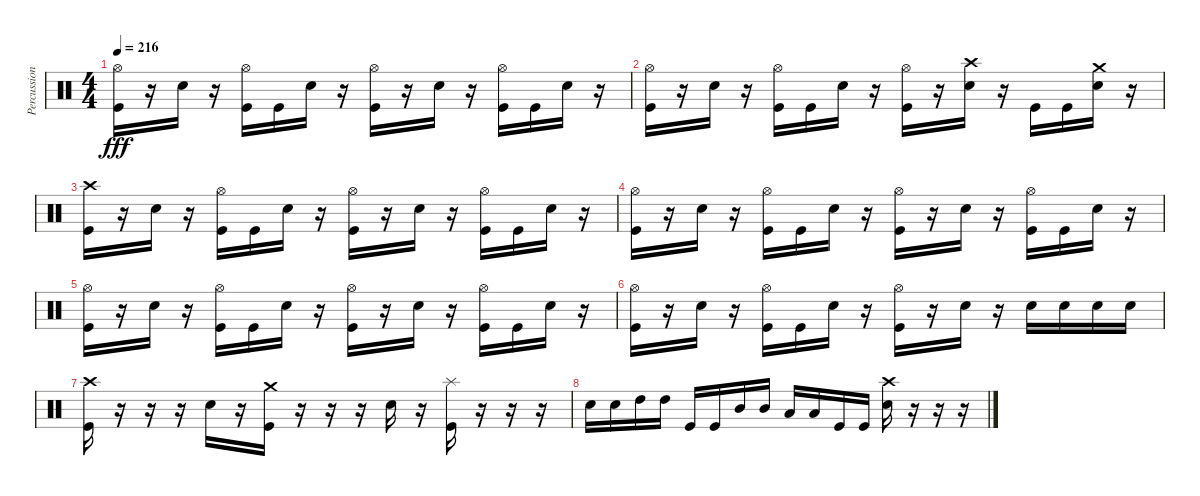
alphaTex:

\track ("Percussion" "Percussion") {instrument percussion}
\staff {score}
\articulation defaults
\ts (4 4)
\tempo 216
\clef neutral
\ks c
("Hi-Hat (open)" "Kick (hit)").16{dy fff} r.16 "Electric Snare (hit)".16 r.16 ("Hi-Hat (open)" "Kick (hit)").16 "Kick (hit)".16 "Electric Snare (hit)".16 r.16 ("Hi-Hat (open)" "Kick (hit)").16 r.16 "Electric Snare (hit)".16 r.16 ("Hi-Hat (open)" "Kick (hit)").16 "Kick (hit)".16 "Electric Snare (hit)".16 r.16 |
("Hi-Hat (open)" "Kick (hit)").16 r.16 "Electric Snare (hit)".16 r.16 ("Hi-Hat (open)" "Kick (hit)").16 "Kick (hit)".16 "Electric Snare (hit)".16 r.16 ("Hi-Hat (open)" "Kick (hit)").16 r.16 ("Crash high (hit)" "Electric Snare (hit)").16 r.16 "Kick (hit)".16 "Kick (hit)".16 ("Crash medium (hit)" "Electric Snare (hit)").16 r.16 |
("Crash high (hit)" "Kick (hit)").16 r.16 "Electric Snare (hit)".16 r.16 ("Hi-Hat (open)" "Kick (hit)").16 "Kick (hit)".16 "Electric Snare (hit)".16 r.16 ("Hi-Hat (open)" "Kick (hit)").16 r.16 "Electric Snare (hit)".16 r.16 ("Hi-Hat (open)" "Kick (hit)").16 "Kick (hit)".16 "Electric Snare (hit)".16 r.16 |
("Hi-Hat (open)" "Kick (hit)").16 r.16 "Electric Snare (hit)".16 r.16 ("Hi-Hat (open)" "Kick (hit)").16 "Kick (hit)".16 "Electric Snare (hit)".16 r.16 ("Hi-Hat (open)" "Kick (hit)").16 r.16 "Electric Snare (hit)".16 r.16 ("Hi-Hat (open)" "Kick (hit)").16 "Kick (hit)".16 "Electric Snare (hit)".16 r.16 |
("Hi-Hat (open)" "Kick (hit)").16 r.16 "Electric Snare (hit)".16 r.16 ("Hi-Hat (open)" "Kick (hit)").16 "Kick (hit)".16 "Electric Snare (hit)".16 r.16 ("Hi-Hat (open)" "Kick (hit)").16 r.16 "Electric Snare (hit)".16 r.16 ("Hi-Hat (open)" "Kick (hit)").16 "Kick (hit)".16 "Electric Snare (hit)".16 r.16 |
("Hi-Hat (open)" "Kick (hit)").16 r.16 "Electric Snare (hit)".16 r.16 ("Hi-Hat (open)" "Kick (hit)").16 "Kick (hit)".16 "Electric Snare (hit)".16 r.16 ("Hi-Hat (open)" "Kick (hit)").16 r.16 "Electric Snare (hit)".16 r.16 "Electric Snare (hit)".16 "Electric Snare (hit)".16 "Electric Snare (hit)".16 "Electric Snare (hit)".16 |
("Crash high (hit)" "Kick (hit)").16 r.16 r.16 r.16 "Electric Snare (hit)".16 r.16 ("Crash medium (hit)" "Kick (hit)").16 r.16 r.16 r.16 "Electric Snare (hit)".16 r.16 ("Splash (hit)" "Kick (hit)").16 r.16 r.16 r.16 |
"Electric Snare (hit)".16 "Electric Snare (hit)".16 "High Tom (hit)".16 "High Tom (hit)".16 "Kick (hit)".16 "Kick (hit)".16 "Mid Tom (hit)".16 "Mid Tom (hit)".16 "Low Tom (hit)".16 "Low Tom (hit)".16 "Kick (hit)".16 "Kick (hit)".16 ("Crash high (hit)" "Electric Snare (hit)").16 r.16 r.16 r.16
